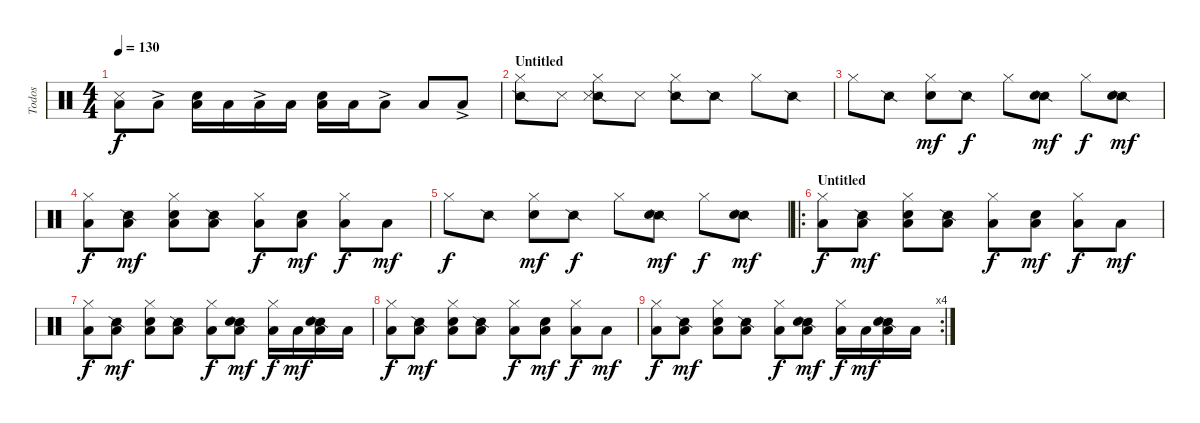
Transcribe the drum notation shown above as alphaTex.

\track ("Todos" "Todos") {instrument percussion}
\staff {score}
\articulation defaults
\ts (4 4)
\tempo 130
\clef neutral
\ks c
("Low Floor Tom (hit)" "Snare (side stick) 3").8{dy f} "Low Floor Tom (hit)"{ac}.8 ("Low Floor Tom (hit)" "Hand Clap (hit)").16 "Low Floor Tom (hit)".16 "Low Floor Tom (hit)"{ac}.16 "Low Floor Tom (hit)".16 ("Low Floor Tom (hit)" "Hand Clap (hit)").16 "Low Floor Tom (hit)".16 "Low Floor Tom (hit)"{ac}.8 "Low Floor Tom (hit)".8 "Low Floor Tom (hit)"{ac}.8 |
\section ("" "Untitled")
("Snare (side stick) 2" "Hi-Hat (closed)").8 "Snare (side stick) 3".8 ("Snare (side stick) 2" "Snare (side stick) 3" "Hi-Hat (closed)").8 "Snare (side stick) 3".8 ("Snare (side stick) 2" "Hi-Hat (closed)").8 "Snare (side stick) 2".8 "Hi-Hat (closed)".8 "Snare (side stick) 2".8 |
"Hi-Hat (closed)".8 "Snare (side stick) 2".8 ("Hi-Hat (closed)" "Hand Clap (hit)").8{dy mf} "Snare (side stick) 2".8{dy f} "Hi-Hat (closed)".8 ("Snare (side stick) 2" "Hand Clap (hit)").8{dy mf} "Hi-Hat (closed)".8{dy f} ("Snare (side stick) 2" "Hand Clap (hit)").8{dy mf} |
("Low Floor Tom (hit)" "Hi-Hat (closed)").8{dy f} ("Snare (side stick) 2" "Low Floor Tom (hit)").8{dy mf} ("Low Floor Tom (hit)" "Hi-Hat (closed)" "Hand Clap (hit)").8 ("Snare (side stick) 2" "Low Floor Tom (hit)").8 ("Low Floor Tom (hit)" "Hi-Hat (closed)").8{dy f} ("Low Floor Tom (hit)" "Hand Clap (hit)").8{dy mf} ("Low Floor Tom (hit)" "Hi-Hat (closed)").8{dy f} "Low Floor Tom (hit)".8{dy mf} |
"Hi-Hat (closed)".8{dy f} "Snare (side stick) 2".8 ("Hi-Hat (closed)" "Hand Clap (hit)").8{dy mf} "Snare (side stick) 2".8{dy f} "Hi-Hat (closed)".8 ("Snare (side stick) 2" "Hand Clap (hit)").8{dy mf} "Hi-Hat (closed)".8{dy f} ("Snare (side stick) 2" "Hand Clap (hit)").8{dy mf} |
\ro
\section ("" "Untitled")
("Low Floor Tom (hit)" "Hi-Hat (closed)").8{dy f} ("Snare (side stick) 2" "Low Floor Tom (hit)").8{dy mf} ("Low Floor Tom (hit)" "Hi-Hat (closed)" "Hand Clap (hit)").8 ("Snare (side stick) 2" "Low Floor Tom (hit)").8 ("Low Floor Tom (hit)" "Hi-Hat (closed)").8{dy f} ("Low Floor Tom (hit)" "Hand Clap (hit)").8{dy mf} ("Low Floor Tom (hit)" "Hi-Hat (closed)").8{dy f} "Low Floor Tom (hit)".8{dy mf} |
("Low Floor Tom (hit)" "Hi-Hat (closed)").8{dy f} ("Snare (side stick) 2" "Low Floor Tom (hit)").8{dy mf} ("Low Floor Tom (hit)" "Hi-Hat (closed)" "Hand Clap (hit)").8 ("Snare (side stick) 2" "Low Floor Tom (hit)").8 ("Low Floor Tom (hit)" "Hi-Hat (closed)").8{dy f} ("Snare (side stick) 2" "Low Floor Tom (hit)" "Hand Clap (hit)").8{dy mf} ("Low Floor Tom (hit)" "Hi-Hat (closed)").16{dy f} "Low Floor Tom (hit)".16{dy mf} ("Snare (side stick) 2" "Low Floor Tom (hit)" "Hand Clap (hit)").16 "Low Floor Tom (hit)".16 |
("Low Floor Tom (hit)" "Hi-Hat (closed)").8{dy f} ("Snare (side stick) 2" "Low Floor Tom (hit)").8{dy mf} ("Low Floor Tom (hit)" "Hi-Hat (closed)" "Hand Clap (hit)").8 ("Snare (side stick) 2" "Low Floor Tom (hit)").8 ("Low Floor Tom (hit)" "Hi-Hat (closed)").8{dy f} ("Low Floor Tom (hit)" "Hand Clap (hit)").8{dy mf} ("Low Floor Tom (hit)" "Hi-Hat (closed)").8{dy f} "Low Floor Tom (hit)".8{dy mf} |
\rc 4
("Low Floor Tom (hit)" "Hi-Hat (closed)").8{dy f} ("Snare (side stick) 2" "Low Floor Tom (hit)").8{dy mf} ("Low Floor Tom (hit)" "Hi-Hat (closed)" "Hand Clap (hit)").8 ("Snare (side stick) 2" "Low Floor Tom (hit)").8 ("Low Floor Tom (hit)" "Hi-Hat (closed)").8{dy f} ("Snare (side stick) 2" "Low Floor Tom (hit)" "Hand Clap (hit)").8{dy mf} ("Low Floor Tom (hit)" "Hi-Hat (closed)").16{dy f} "Low Floor Tom (hit)".16{dy mf} ("Snare (side stick) 2" "Low Floor Tom (hit)" "Hand Clap (hit)").16 "Low Floor Tom (hit)".16
